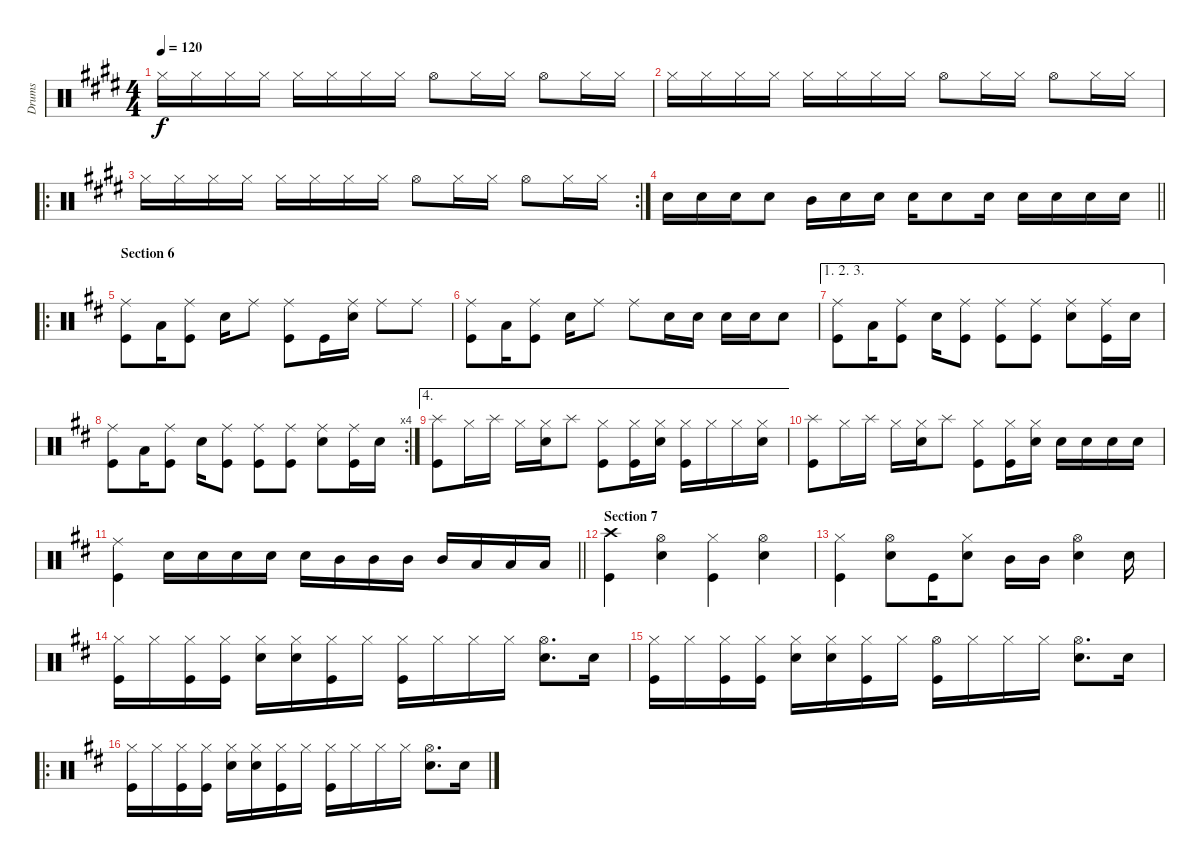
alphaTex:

\track ("Drums" "Drums") {instrument percussion}
\staff {score}
\articulation defaults
\ts (4 4)
\tempo 120
\clef neutral
\ks e "Hi-Hat (closed)".16{dy f} "Hi-Hat (closed)".16 "Hi-Hat (closed)".16 "Hi-Hat (closed)".16 "Hi-Hat (closed)".16 "Hi-Hat (closed)".16 "Hi-Hat (closed)".16 "Hi-Hat (closed)".16 "Hi-Hat (open)".8 "Hi-Hat (closed)".16 "Hi-Hat (closed)".16 "Hi-Hat (open)".8 "Hi-Hat (closed)".16 "Hi-Hat (closed)".16
|
"Hi-Hat (closed)".16 "Hi-Hat (closed)".16 "Hi-Hat (closed)".16 "Hi-Hat (closed)".16 "Hi-Hat (closed)".16 "Hi-Hat (closed)".16 "Hi-Hat (closed)".16 "Hi-Hat (closed)".16 "Hi-Hat (open)".8 "Hi-Hat (closed)".16 "Hi-Hat (closed)".16 "Hi-Hat (open)".8 "Hi-Hat (closed)".16 "Hi-Hat (closed)".16 |
\ro
\rc 2 "Hi-Hat (closed)".16 "Hi-Hat (closed)".16 "Hi-Hat (closed)".16 "Hi-Hat (closed)".16 "Hi-Hat (closed)".16 "Hi-Hat (closed)".16 "Hi-Hat (closed)".16 "Hi-Hat (closed)".16 "Hi-Hat (open)".8 "Hi-Hat (closed)".16 "Hi-Hat (closed)".16 "Hi-Hat (open)".8 "Hi-Hat (closed)".16 "Hi-Hat (closed)".16
|
\barLineRight lightlight "Snare (hit) 2".16 "Snare (hit) 2".16 "Snare (hit) 2".16 "Snare (hit) 2".8 "Mid Tom (hit)".16 "Snare (hit) 2".16 "Snare (hit) 2".16 "Snare (hit) 2".16 "Snare (hit) 2".8 "Snare (hit) 2".16 "Snare (hit) 2".16 "Snare (hit) 2".16 "Snare (hit) 2".16 "Snare (hit) 2".16
|
\ro
\section ("" "Section 6")
\ks d
("Ride (middle)" "Kick (hit)").8 "Low Tom (hit)".16 ("Ride (middle)" "Kick (hit)").8 "Snare (hit) 2".16 "Ride (middle)".8 ("Ride (middle)" "Kick (hit)").8 "Kick (hit)".16 ("Ride (middle)" "Snare (hit) 2").16 "Ride (middle)".8 "Ride (middle)".8 |
("Ride (middle)" "Kick (hit)").8 "Low Tom (hit)".16 ("Ride (middle)" "Kick (hit)").8 "Snare (hit) 2".16 "Ride (middle)".8 "Ride (middle)".8 "Snare (hit) 2".16 "Snare (hit) 2".16 "Snare (hit) 2".16 "Snare (hit) 2".16 "Snare (hit) 2".8 |
\ae (1 2 3)
("Ride (middle)" "Kick (hit)").8 "Low Tom (hit)".16 ("Ride (middle)" "Kick (hit)").8 "Snare (hit) 2".16 ("Ride (middle)" "Kick (hit)").8 ("Ride (middle)" "Kick (hit)").8 ("Ride (middle)" "Kick (hit)").8 ("Ride (middle)" "Snare (hit) 2").8 ("Ride (middle)" "Kick (hit)").16 "Snare (hit) 2".16 |
\rc 4
("Ride (middle)" "Kick (hit)").8 "Low Tom (hit)".16 ("Ride (middle)" "Kick (hit)").8 "Snare (hit) 2".16 ("Ride (middle)" "Kick (hit)").8 ("Ride (middle)" "Kick (hit)").8 ("Ride (middle)" "Kick (hit)").8 ("Ride (middle)" "Snare (hit) 2").8 ("Ride (middle)" "Kick (hit)").16 "Snare (hit) 2".16 |
\ae 4
("Splash (hit)" "Kick (hit)").8 "Hi-Hat (closed)".16 "Splash (hit)".16 "Hi-Hat (closed)".16 ("Hi-Hat (closed)" "Snare (hit) 2").16 "Splash (hit)".8 ("Hi-Hat (closed)" "Kick (hit)").8 ("Hi-Hat (closed)" "Kick (hit)").16 ("Hi-Hat (closed)" "Snare (hit) 2").16 ("Hi-Hat (closed)" "Kick (hit)").16 "Hi-Hat (closed)".16 "Hi-Hat (closed)".16 ("Hi-Hat (closed)" "Snare (hit) 2").16 |
("Splash (hit)" "Kick (hit)").8 "Hi-Hat (closed)".16 "Splash (hit)".16 "Hi-Hat (closed)".16 ("Hi-Hat (closed)" "Snare (hit) 2").16 "Splash (hit)".8 ("Hi-Hat (closed)" "Kick (hit)").8 ("Hi-Hat (closed)" "Kick (hit)").16 ("Hi-Hat (closed)" "Snare (hit) 2").16 "Snare (hit) 2".16 "Snare (hit) 2".16 "Snare (hit) 2".16 "Snare (hit) 2".16 |
\barLineRight lightlight
("Ride (middle)" "Kick (hit)").4 "Snare (hit) 2".16 "Snare (hit) 2".16 "Snare (hit) 2".16 "Snare (hit) 2".16 "Snare (hit) 2".16 "Mid Tom (hit)".16 "Mid Tom (hit)".16 "Mid Tom (hit)".16 "Mid Tom (hit)".16 "Low Tom (hit)".16 "Low Tom (hit)".16 "Low Tom (hit)".16 |
\section ("" "Section 7")
("Crash high (hit)" "Kick (hit)").4 ("Hi-Hat (open)" "Snare (hit) 2").4 ("Hi-Hat (closed)" "Kick (hit)").4 ("Hi-Hat (open)" "Snare (hit) 2").4 |
("Hi-Hat (closed)" "Kick (hit)").4 ("Hi-Hat (open)" "Snare (hit) 2").8 "Kick (hit)".16 ("Hi-Hat (closed)" "Snare (hit) 2").8 "Mid Tom (hit)".16 "Mid Tom (hit)".16 ("Hi-Hat (open)" "Snare (hit) 2").4 "Snare (hit) 2".16 |
("Hi-Hat (closed)" "Kick (hit)").16 "Hi-Hat (closed)".16 ("Hi-Hat (closed)" "Kick (hit)").16 ("Hi-Hat (closed)" "Kick (hit)").16 ("Hi-Hat (closed)" "Snare (hit) 2").16 ("Hi-Hat (closed)" "Snare (hit) 2").16 ("Hi-Hat (closed)" "Kick (hit)").16 "Hi-Hat (closed)".16 ("Hi-Hat (closed)" "Kick (hit)").16 "Hi-Hat (closed)".16 "Hi-Hat (closed)".16 "Hi-Hat (closed)".16 ("Hi-Hat (open)" "Snare (hit) 2").8{d} "Snare (hit) 2".16 |
("Hi-Hat (closed)" "Kick (hit)").16 "Hi-Hat (closed)".16 ("Hi-Hat (closed)" "Kick (hit)").16 ("Hi-Hat (closed)" "Kick (hit)").16 ("Hi-Hat (closed)" "Snare (hit) 2").16 ("Hi-Hat (closed)" "Snare (hit) 2").16 ("Hi-Hat (closed)" "Kick (hit)").16 "Hi-Hat (closed)".16 ("Hi-Hat (open)" "Kick (hit)").16 "Hi-Hat (closed)".16 "Hi-Hat (closed)".16 "Hi-Hat (closed)".16 ("Hi-Hat (open)" "Snare (hit) 2").8{d} "Snare (hit) 2".16 |
\ro
("Hi-Hat (closed)" "Kick (hit)").16 "Hi-Hat (closed)".16 ("Hi-Hat (closed)" "Kick (hit)").16 ("Hi-Hat (closed)" "Kick (hit)").16 ("Hi-Hat (closed)" "Snare (hit) 2").16 ("Hi-Hat (closed)" "Snare (hit) 2").16 ("Hi-Hat (closed)" "Kick (hit)").16 "Hi-Hat (closed)".16 ("Hi-Hat (closed)" "Kick (hit)").16 "Hi-Hat (closed)".16 "Hi-Hat (closed)".16 "Hi-Hat (closed)".16 ("Hi-Hat (open)" "Snare (hit) 2").8{d} "Snare (hit) 2".16
